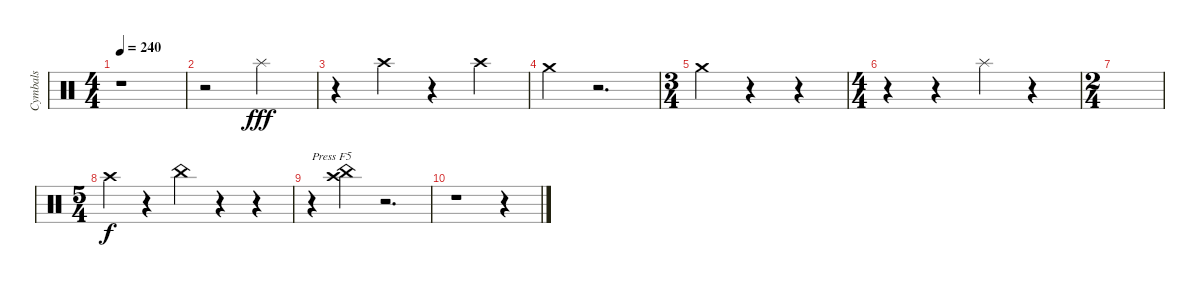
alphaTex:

\track ("Cymbals" "Cymbals") {instrument percussion}
\staff {score}
\articulation defaults
\ts (4 4)
\tempo 240
\clef neutral
\ks c
r.1{dy fff} |
r.2 "Splash (hit)".2 |
r.4 "Crash high (hit)".4 r.4 "Crash high (hit)".4 |
"Crash medium (hit)".4 r.2{d} |
\ts (3 4)
"Crash medium (hit)".4 r.4 r.4 |
\ts (4 4)
r.4 r.4 "Splash (hit)".4 r.4 |
\ts (2 4)
|
\ts (5 4)
"Crash high (hit)".4{dy f} r.4 "China (hit)".4 r.4 r.4 |
r.4{txt "Press F5"} ("China (hit)" "Crash high (hit)").4 r.2{d} |
r.1 r.4
